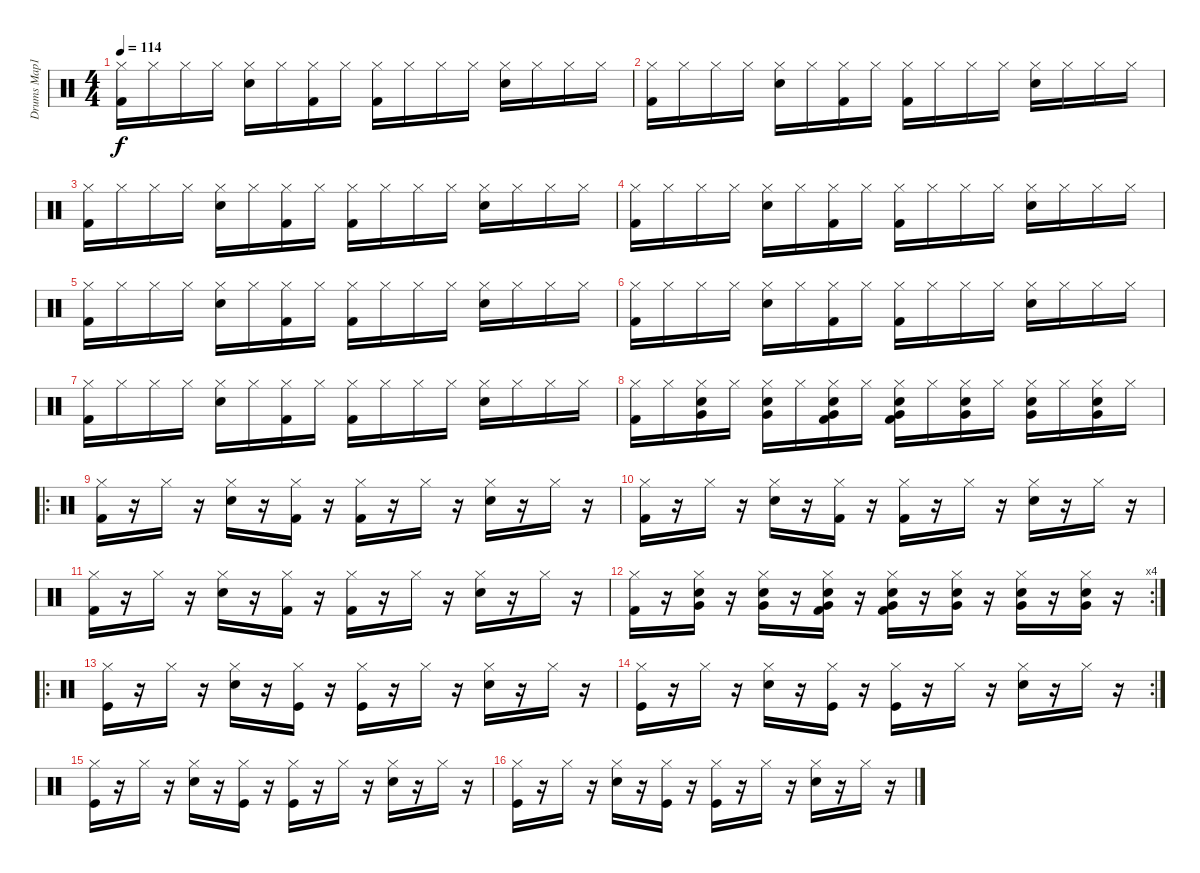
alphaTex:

\track ("Drums Map1" "Drums Map1") {instrument percussion}
\staff {score}
\articulation defaults
\ts (4 4)
\tempo 114
\clef neutral
\ks c
("Kick (hit) 2" "Hi-Hat (closed)").16{dy f} "Hi-Hat (closed)".16 "Hi-Hat (closed)".16 "Hi-Hat (closed)".16 ("Snare (hit) 2" "Hi-Hat (closed)").16 "Hi-Hat (closed)".16 ("Kick (hit) 2" "Hi-Hat (closed)").16 "Hi-Hat (closed)".16 ("Kick (hit) 2" "Hi-Hat (closed)").16 "Hi-Hat (closed)".16 "Hi-Hat (closed)".16 "Hi-Hat (closed)".16 ("Snare (hit) 2" "Hi-Hat (closed)").16 "Hi-Hat (closed)".16 "Hi-Hat (closed)".16 "Hi-Hat (closed)".16 |
("Kick (hit) 2" "Hi-Hat (closed)").16 "Hi-Hat (closed)".16 "Hi-Hat (closed)".16 "Hi-Hat (closed)".16 ("Snare (hit) 2" "Hi-Hat (closed)").16 "Hi-Hat (closed)".16 ("Kick (hit) 2" "Hi-Hat (closed)").16 "Hi-Hat (closed)".16 ("Kick (hit) 2" "Hi-Hat (closed)").16 "Hi-Hat (closed)".16 "Hi-Hat (closed)".16 "Hi-Hat (closed)".16 ("Snare (hit) 2" "Hi-Hat (closed)").16 "Hi-Hat (closed)".16 "Hi-Hat (closed)".16 "Hi-Hat (closed)".16 |
("Kick (hit) 2" "Hi-Hat (closed)").16 "Hi-Hat (closed)".16 "Hi-Hat (closed)".16 "Hi-Hat (closed)".16 ("Snare (hit) 2" "Hi-Hat (closed)").16 "Hi-Hat (closed)".16 ("Kick (hit) 2" "Hi-Hat (closed)").16 "Hi-Hat (closed)".16 ("Kick (hit) 2" "Hi-Hat (closed)").16 "Hi-Hat (closed)".16 "Hi-Hat (closed)".16 "Hi-Hat (closed)".16 ("Snare (hit) 2" "Hi-Hat (closed)").16 "Hi-Hat (closed)".16 "Hi-Hat (closed)".16 "Hi-Hat (closed)".16 |
("Kick (hit) 2" "Hi-Hat (closed)").16 "Hi-Hat (closed)".16 "Hi-Hat (closed)".16 "Hi-Hat (closed)".16 ("Snare (hit) 2" "Hi-Hat (closed)").16 "Hi-Hat (closed)".16 ("Kick (hit) 2" "Hi-Hat (closed)").16 "Hi-Hat (closed)".16 ("Kick (hit) 2" "Hi-Hat (closed)").16 "Hi-Hat (closed)".16 "Hi-Hat (closed)".16 "Hi-Hat (closed)".16 ("Snare (hit) 2" "Hi-Hat (closed)").16 "Hi-Hat (closed)".16 "Hi-Hat (closed)".16 "Hi-Hat (closed)".16 |
("Kick (hit) 2" "Hi-Hat (closed)").16 "Hi-Hat (closed)".16 "Hi-Hat (closed)".16 "Hi-Hat (closed)".16 ("Snare (hit) 2" "Hi-Hat (closed)").16 "Hi-Hat (closed)".16 ("Kick (hit) 2" "Hi-Hat (closed)").16 "Hi-Hat (closed)".16 ("Kick (hit) 2" "Hi-Hat (closed)").16 "Hi-Hat (closed)".16 "Hi-Hat (closed)".16 "Hi-Hat (closed)".16 ("Snare (hit) 2" "Hi-Hat (closed)").16 "Hi-Hat (closed)".16 "Hi-Hat (closed)".16 "Hi-Hat (closed)".16 |
("Kick (hit) 2" "Hi-Hat (closed)").16 "Hi-Hat (closed)".16 "Hi-Hat (closed)".16 "Hi-Hat (closed)".16 ("Snare (hit) 2" "Hi-Hat (closed)").16 "Hi-Hat (closed)".16 ("Kick (hit) 2" "Hi-Hat (closed)").16 "Hi-Hat (closed)".16 ("Kick (hit) 2" "Hi-Hat (closed)").16 "Hi-Hat (closed)".16 "Hi-Hat (closed)".16 "Hi-Hat (closed)".16 ("Snare (hit) 2" "Hi-Hat (closed)").16 "Hi-Hat (closed)".16 "Hi-Hat (closed)".16 "Hi-Hat (closed)".16 |
("Kick (hit) 2" "Hi-Hat (closed)").16 "Hi-Hat (closed)".16 "Hi-Hat (closed)".16 "Hi-Hat (closed)".16 ("Snare (hit) 2" "Hi-Hat (closed)").16 "Hi-Hat (closed)".16 ("Kick (hit) 2" "Hi-Hat (closed)").16 "Hi-Hat (closed)".16 ("Kick (hit) 2" "Hi-Hat (closed)").16 "Hi-Hat (closed)".16 "Hi-Hat (closed)".16 "Hi-Hat (closed)".16 ("Snare (hit) 2" "Hi-Hat (closed)").16 "Hi-Hat (closed)".16 "Hi-Hat (closed)".16 "Hi-Hat (closed)".16 |
("Kick (hit) 2" "Hi-Hat (closed)").16 "Hi-Hat (closed)".16 ("Snare (hit) 2" "Hi-Hat (closed)" "Very Low Tom (hit)").16 "Hi-Hat (closed)".16 ("Snare (hit) 2" "Hi-Hat (closed)" "Very Low Tom (hit)").16 "Hi-Hat (closed)".16 ("Kick (hit) 2" "Snare (hit) 2" "Hi-Hat (closed)" "Very Low Tom (hit)").16 "Hi-Hat (closed)".16 ("Kick (hit) 2" "Snare (hit) 2" "Hi-Hat (closed)" "Very Low Tom (hit)").16 "Hi-Hat (closed)".16 ("Snare (hit) 2" "Hi-Hat (closed)" "Very Low Tom (hit)").16 "Hi-Hat (closed)".16 ("Snare (hit) 2" "Hi-Hat (closed)" "Very Low Tom (hit)").16 "Hi-Hat (closed)".16 ("Snare (hit) 2" "Hi-Hat (closed)" "Very Low Tom (hit)").16 "Hi-Hat (closed)".16 |
\ro
("Kick (hit) 2" "Hi-Hat (closed)").16 r.16 "Hi-Hat (closed)".16 r.16 ("Snare (hit) 2" "Hi-Hat (closed)").16 r.16 ("Kick (hit) 2" "Hi-Hat (closed)").16 r.16 ("Kick (hit) 2" "Hi-Hat (closed)").16 r.16 "Hi-Hat (closed)".16 r.16 ("Snare (hit) 2" "Hi-Hat (closed)").16 r.16 "Hi-Hat (closed)".16 r.16 |
("Kick (hit) 2" "Hi-Hat (closed)").16 r.16 "Hi-Hat (closed)".16 r.16 ("Snare (hit) 2" "Hi-Hat (closed)").16 r.16 ("Kick (hit) 2" "Hi-Hat (closed)").16 r.16 ("Kick (hit) 2" "Hi-Hat (closed)").16 r.16 "Hi-Hat (closed)".16 r.16 ("Snare (hit) 2" "Hi-Hat (closed)").16 r.16 "Hi-Hat (closed)".16 r.16 |
("Kick (hit) 2" "Hi-Hat (closed)").16 r.16 "Hi-Hat (closed)".16 r.16 ("Snare (hit) 2" "Hi-Hat (closed)").16 r.16 ("Kick (hit) 2" "Hi-Hat (closed)").16 r.16 ("Kick (hit) 2" "Hi-Hat (closed)").16 r.16 "Hi-Hat (closed)".16 r.16 ("Snare (hit) 2" "Hi-Hat (closed)").16 r.16 "Hi-Hat (closed)".16 r.16 |
\rc 4
("Kick (hit) 2" "Hi-Hat (closed)").16 r.16 ("Snare (hit) 2" "Hi-Hat (closed)" "Very Low Tom (hit)").16 r.16 ("Snare (hit) 2" "Hi-Hat (closed)" "Very Low Tom (hit)").16 r.16 ("Kick (hit) 2" "Snare (hit) 2" "Hi-Hat (closed)" "Very Low Tom (hit)").16 r.16 ("Kick (hit) 2" "Snare (hit) 2" "Hi-Hat (closed)" "Very Low Tom (hit)").16 r.16 ("Snare (hit) 2" "Hi-Hat (closed)" "Very Low Tom (hit)").16 r.16 ("Snare (hit) 2" "Hi-Hat (closed)" "Very Low Tom (hit)").16 r.16 ("Snare (hit) 2" "Hi-Hat (closed)" "Very Low Tom (hit)").16 r.16 |
\ro
("Kick (hit)" "Hi-Hat (closed)").16 r.16 "Hi-Hat (closed)".16 r.16 ("Snare (hit) 2" "Hi-Hat (closed)").16 r.16 ("Kick (hit)" "Hi-Hat (closed)").16 r.16 ("Kick (hit)" "Hi-Hat (closed)").16 r.16 "Hi-Hat (closed)".16 r.16 ("Snare (hit) 2" "Hi-Hat (closed)").16 r.16 "Hi-Hat (closed)".16 r.16 |
\rc 2
("Kick (hit)" "Hi-Hat (closed)").16 r.16 "Hi-Hat (closed)".16 r.16 ("Snare (hit) 2" "Hi-Hat (closed)").16 r.16 ("Kick (hit)" "Hi-Hat (closed)").16 r.16 ("Kick (hit)" "Hi-Hat (closed)").16 r.16 "Hi-Hat (closed)".16 r.16 ("Snare (hit) 2" "Hi-Hat (closed)").16 r.16 "Hi-Hat (closed)".16 r.16 |
("Kick (hit)" "Hi-Hat (closed)").16 r.16 "Hi-Hat (closed)".16 r.16 ("Snare (hit) 2" "Hi-Hat (closed)").16 r.16 ("Kick (hit)" "Hi-Hat (closed)").16 r.16 ("Kick (hit)" "Hi-Hat (closed)").16 r.16 "Hi-Hat (closed)".16 r.16 ("Snare (hit) 2" "Hi-Hat (closed)").16 r.16 "Hi-Hat (closed)".16 r.16 |
("Kick (hit)" "Hi-Hat (closed)").16 r.16 "Hi-Hat (closed)".16 r.16 ("Snare (hit) 2" "Hi-Hat (closed)").16 r.16 ("Kick (hit)" "Hi-Hat (closed)").16 r.16 ("Kick (hit)" "Hi-Hat (closed)").16 r.16 "Hi-Hat (closed)".16 r.16 ("Snare (hit) 2" "Hi-Hat (closed)").16 r.16 "Hi-Hat (closed)".16 r.16
